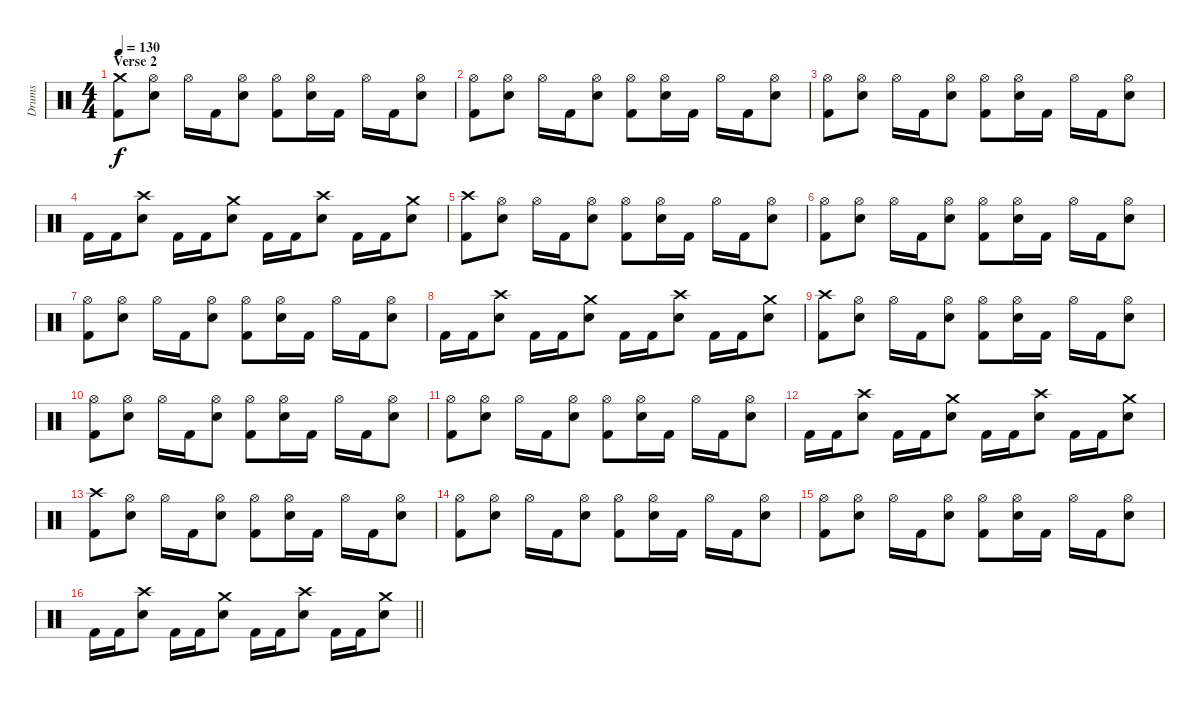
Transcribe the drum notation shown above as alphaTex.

\track ("Drums" "Drums") {instrument percussion}
\staff {score}
\articulation defaults
\ts (4 4)
\section ("" "Verse 2")
\tempo 130
\clef neutral
\ks c
("Crash medium (hit)" "Kick (hit) 2").8{dy f} ("Hi-Hat (open)" "Electric Snare (hit)").8 "Hi-Hat (open)".16 "Kick (hit) 2".16 ("Hi-Hat (open)" "Electric Snare (hit)").8 ("Hi-Hat (open)" "Kick (hit) 2").8 ("Hi-Hat (open)" "Electric Snare (hit)").16 "Kick (hit) 2".16 "Hi-Hat (open)".16 "Kick (hit) 2".16 ("Hi-Hat (open)" "Electric Snare (hit)").8 |
("Hi-Hat (open)" "Kick (hit) 2").8 ("Hi-Hat (open)" "Electric Snare (hit)").8 "Hi-Hat (open)".16 "Kick (hit) 2".16 ("Hi-Hat (open)" "Electric Snare (hit)").8 ("Hi-Hat (open)" "Kick (hit) 2").8 ("Hi-Hat (open)" "Electric Snare (hit)").16 "Kick (hit) 2".16 "Hi-Hat (open)".16 "Kick (hit) 2".16 ("Hi-Hat (open)" "Electric Snare (hit)").8 |
("Hi-Hat (open)" "Kick (hit) 2").8 ("Hi-Hat (open)" "Electric Snare (hit)").8 "Hi-Hat (open)".16 "Kick (hit) 2".16 ("Hi-Hat (open)" "Electric Snare (hit)").8 ("Hi-Hat (open)" "Kick (hit) 2").8 ("Hi-Hat (open)" "Electric Snare (hit)").16 "Kick (hit) 2".16 "Hi-Hat (open)".16 "Kick (hit) 2".16 ("Hi-Hat (open)" "Electric Snare (hit)").8 |
"Kick (hit) 2".16 "Kick (hit) 2".16 ("Crash high (hit)" "Electric Snare (hit)").8 "Kick (hit) 2".16 "Kick (hit) 2".16 ("Crash medium (hit)" "Electric Snare (hit)").8 "Kick (hit) 2".16 "Kick (hit) 2".16 ("Crash high (hit)" "Electric Snare (hit)").8 "Kick (hit) 2".16 "Kick (hit) 2".16 ("Crash medium (hit)" "Electric Snare (hit)").8 |
("Crash high (hit)" "Kick (hit) 2").8 ("Hi-Hat (open)" "Electric Snare (hit)").8 "Hi-Hat (open)".16 "Kick (hit) 2".16 ("Hi-Hat (open)" "Electric Snare (hit)").8 ("Hi-Hat (open)" "Kick (hit) 2").8 ("Hi-Hat (open)" "Electric Snare (hit)").16 "Kick (hit) 2".16 "Hi-Hat (open)".16 "Kick (hit) 2".16 ("Hi-Hat (open)" "Electric Snare (hit)").8 |
("Hi-Hat (open)" "Kick (hit) 2").8 ("Hi-Hat (open)" "Electric Snare (hit)").8 "Hi-Hat (open)".16 "Kick (hit) 2".16 ("Hi-Hat (open)" "Electric Snare (hit)").8 ("Hi-Hat (open)" "Kick (hit) 2").8 ("Hi-Hat (open)" "Electric Snare (hit)").16 "Kick (hit) 2".16 "Hi-Hat (open)".16 "Kick (hit) 2".16 ("Hi-Hat (open)" "Electric Snare (hit)").8 |
("Hi-Hat (open)" "Kick (hit) 2").8 ("Hi-Hat (open)" "Electric Snare (hit)").8 "Hi-Hat (open)".16 "Kick (hit) 2".16 ("Hi-Hat (open)" "Electric Snare (hit)").8 ("Hi-Hat (open)" "Kick (hit) 2").8 ("Hi-Hat (open)" "Electric Snare (hit)").16 "Kick (hit) 2".16 "Hi-Hat (open)".16 "Kick (hit) 2".16 ("Hi-Hat (open)" "Electric Snare (hit)").8 |
"Kick (hit) 2".16 "Kick (hit) 2".16 ("Crash high (hit)" "Electric Snare (hit)").8 "Kick (hit) 2".16 "Kick (hit) 2".16 ("Crash medium (hit)" "Electric Snare (hit)").8 "Kick (hit) 2".16 "Kick (hit) 2".16 ("Crash high (hit)" "Electric Snare (hit)").8 "Kick (hit) 2".16 "Kick (hit) 2".16 ("Crash medium (hit)" "Electric Snare (hit)").8 |
("Crash high (hit)" "Kick (hit) 2").8 ("Hi-Hat (open)" "Electric Snare (hit)").8 "Hi-Hat (open)".16 "Kick (hit) 2".16 ("Hi-Hat (open)" "Electric Snare (hit)").8 ("Hi-Hat (open)" "Kick (hit) 2").8 ("Hi-Hat (open)" "Electric Snare (hit)").16 "Kick (hit) 2".16 "Hi-Hat (open)".16 "Kick (hit) 2".16 ("Hi-Hat (open)" "Electric Snare (hit)").8 |
("Hi-Hat (open)" "Kick (hit) 2").8 ("Hi-Hat (open)" "Electric Snare (hit)").8 "Hi-Hat (open)".16 "Kick (hit) 2".16 ("Hi-Hat (open)" "Electric Snare (hit)").8 ("Hi-Hat (open)" "Kick (hit) 2").8 ("Hi-Hat (open)" "Electric Snare (hit)").16 "Kick (hit) 2".16 "Hi-Hat (open)".16 "Kick (hit) 2".16 ("Hi-Hat (open)" "Electric Snare (hit)").8 |
("Hi-Hat (open)" "Kick (hit) 2").8 ("Hi-Hat (open)" "Electric Snare (hit)").8 "Hi-Hat (open)".16 "Kick (hit) 2".16 ("Hi-Hat (open)" "Electric Snare (hit)").8 ("Hi-Hat (open)" "Kick (hit) 2").8 ("Hi-Hat (open)" "Electric Snare (hit)").16 "Kick (hit) 2".16 "Hi-Hat (open)".16 "Kick (hit) 2".16 ("Hi-Hat (open)" "Electric Snare (hit)").8 |
"Kick (hit) 2".16 "Kick (hit) 2".16 ("Crash high (hit)" "Electric Snare (hit)").8 "Kick (hit) 2".16 "Kick (hit) 2".16 ("Crash medium (hit)" "Electric Snare (hit)").8 "Kick (hit) 2".16 "Kick (hit) 2".16 ("Crash high (hit)" "Electric Snare (hit)").8 "Kick (hit) 2".16 "Kick (hit) 2".16 ("Crash medium (hit)" "Electric Snare (hit)").8 |
("Crash high (hit)" "Kick (hit) 2").8 ("Hi-Hat (open)" "Electric Snare (hit)").8 "Hi-Hat (open)".16 "Kick (hit) 2".16 ("Hi-Hat (open)" "Electric Snare (hit)").8 ("Hi-Hat (open)" "Kick (hit) 2").8 ("Hi-Hat (open)" "Electric Snare (hit)").16 "Kick (hit) 2".16 "Hi-Hat (open)".16 "Kick (hit) 2".16 ("Hi-Hat (open)" "Electric Snare (hit)").8 |
("Hi-Hat (open)" "Kick (hit) 2").8 ("Hi-Hat (open)" "Electric Snare (hit)").8 "Hi-Hat (open)".16 "Kick (hit) 2".16 ("Hi-Hat (open)" "Electric Snare (hit)").8 ("Hi-Hat (open)" "Kick (hit) 2").8 ("Hi-Hat (open)" "Electric Snare (hit)").16 "Kick (hit) 2".16 "Hi-Hat (open)".16 "Kick (hit) 2".16 ("Hi-Hat (open)" "Electric Snare (hit)").8 |
("Hi-Hat (open)" "Kick (hit) 2").8 ("Hi-Hat (open)" "Electric Snare (hit)").8 "Hi-Hat (open)".16 "Kick (hit) 2".16 ("Hi-Hat (open)" "Electric Snare (hit)").8 ("Hi-Hat (open)" "Kick (hit) 2").8 ("Hi-Hat (open)" "Electric Snare (hit)").16 "Kick (hit) 2".16 "Hi-Hat (open)".16 "Kick (hit) 2".16 ("Hi-Hat (open)" "Electric Snare (hit)").8 |
\barLineRight lightlight "Kick (hit) 2".16 "Kick (hit) 2".16
("Crash high (hit)" "Electric Snare (hit)").8 "Kick (hit) 2".16 "Kick (hit) 2".16 ("Crash medium (hit)" "Electric Snare (hit)").8 "Kick (hit) 2".16 "Kick (hit) 2".16 ("Crash high (hit)" "Electric Snare (hit)").8 "Kick (hit) 2".16 "Kick (hit) 2".16 ("Crash medium (hit)" "Electric Snare (hit)").8
